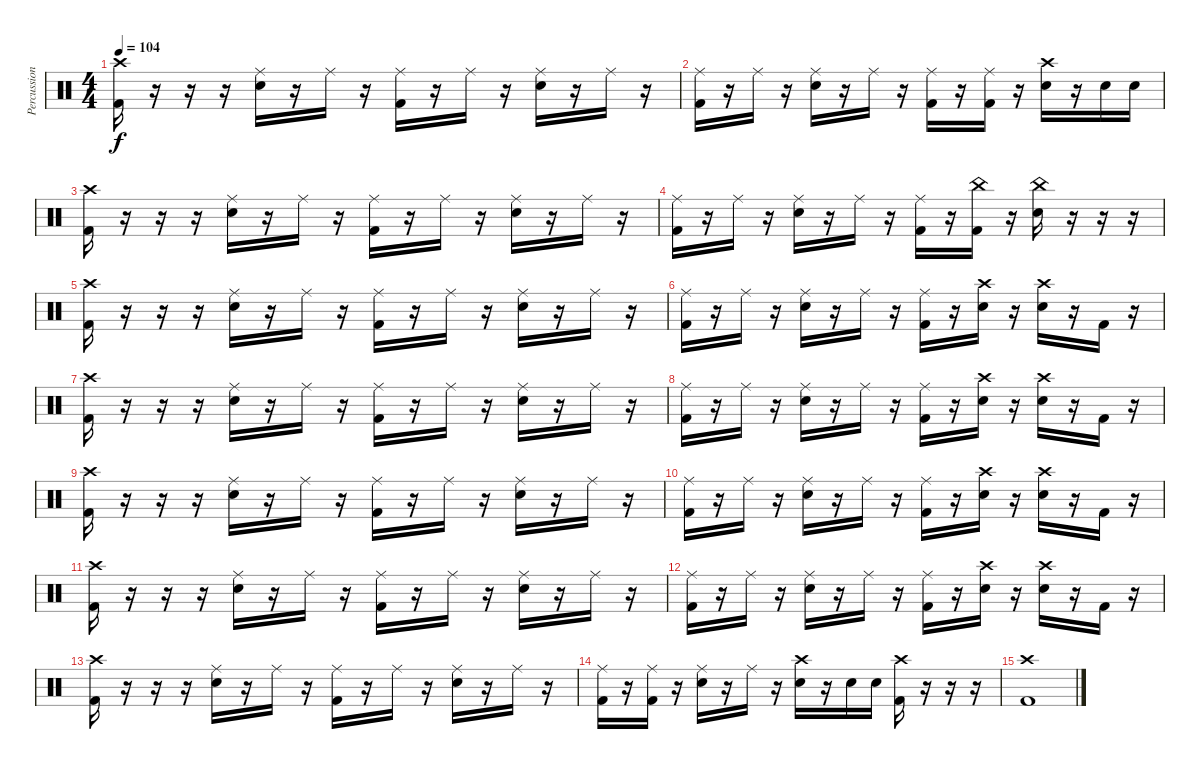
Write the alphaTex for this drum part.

\track ("Percussion" "Percussion") {instrument percussion}
\staff {score}
\articulation defaults
\ts (4 4)
\tempo 104
\clef neutral
\ks c
("Crash high (hit)" "Kick (hit) 2").16{dy f} r.16 r.16 r.16 ("Ride (middle)" "Snare (hit) 2").16 r.16 "Ride (middle)".16 r.16 ("Ride (middle)" "Kick (hit) 2").16 r.16 "Ride (middle)".16 r.16 ("Ride (middle)" "Snare (hit) 2").16 r.16 "Ride (middle)".16 r.16 |
("Ride (middle)" "Kick (hit) 2").16 r.16 "Ride (middle)".16 r.16 ("Ride (middle)" "Snare (hit) 2").16 r.16 "Ride (middle)".16 r.16 ("Ride (middle)" "Kick (hit) 2").16 r.16 ("Ride (middle)" "Kick (hit) 2").16 r.16 ("Crash high (hit)" "Snare (hit) 2").16 r.16 "Snare (hit) 2".16 "Snare (hit) 2".16 |
("Crash high (hit)" "Kick (hit) 2").16 r.16 r.16 r.16 ("Ride (middle)" "Snare (hit) 2").16 r.16 "Ride (middle)".16 r.16 ("Ride (middle)" "Kick (hit) 2").16 r.16 "Ride (middle)".16 r.16 ("Ride (middle)" "Snare (hit) 2").16 r.16 "Ride (middle)".16 r.16 |
("Ride (middle)" "Kick (hit) 2").16 r.16 "Ride (middle)".16 r.16 ("Ride (middle)" "Snare (hit) 2").16 r.16 "Ride (middle)".16 r.16 ("Ride (middle)" "Kick (hit) 2").16 r.16 ("China (hit)" "Kick (hit) 2").16 r.16 ("China (hit)" "Snare (hit) 2").16 r.16 r.16 r.16 |
("Crash high (hit)" "Kick (hit) 2").16 r.16 r.16 r.16 ("Ride (middle)" "Snare (hit) 2").16 r.16 "Ride (middle)".16 r.16 ("Ride (middle)" "Kick (hit) 2").16 r.16 "Ride (middle)".16 r.16 ("Ride (middle)" "Snare (hit) 2").16 r.16 "Ride (middle)".16 r.16 |
("Ride (middle)" "Kick (hit) 2").16 r.16 "Ride (middle)".16 r.16 ("Ride (middle)" "Snare (hit) 2").16 r.16 "Ride (middle)".16 r.16 ("Ride (middle)" "Kick (hit) 2").16 r.16 ("Crash high (hit)" "Snare (hit) 2").16 r.16 ("Crash high (hit)" "Snare (hit) 2").16 r.16 "Kick (hit) 2".16 r.16 |
("Crash high (hit)" "Kick (hit) 2").16 r.16 r.16 r.16 ("Ride (middle)" "Snare (hit) 2").16 r.16 "Ride (middle)".16 r.16 ("Ride (middle)" "Kick (hit) 2").16 r.16 "Ride (middle)".16 r.16 ("Ride (middle)" "Snare (hit) 2").16 r.16 "Ride (middle)".16 r.16 |
("Ride (middle)" "Kick (hit) 2").16 r.16 "Ride (middle)".16 r.16 ("Ride (middle)" "Snare (hit) 2").16 r.16 "Ride (middle)".16 r.16 ("Ride (middle)" "Kick (hit) 2").16 r.16 ("Crash high (hit)" "Snare (hit) 2").16 r.16 ("Crash high (hit)" "Snare (hit) 2").16 r.16 "Kick (hit) 2".16 r.16 |
("Crash high (hit)" "Kick (hit) 2").16 r.16 r.16 r.16 ("Ride (middle)" "Snare (hit) 2").16 r.16 "Ride (middle)".16 r.16 ("Ride (middle)" "Kick (hit) 2").16 r.16 "Ride (middle)".16 r.16 ("Ride (middle)" "Snare (hit) 2").16 r.16 "Ride (middle)".16 r.16 |
("Ride (middle)" "Kick (hit) 2").16 r.16 "Ride (middle)".16 r.16 ("Ride (middle)" "Snare (hit) 2").16 r.16 "Ride (middle)".16 r.16 ("Ride (middle)" "Kick (hit) 2").16 r.16 ("Crash high (hit)" "Snare (hit) 2").16 r.16 ("Crash high (hit)" "Snare (hit) 2").16 r.16 "Kick (hit) 2".16 r.16 |
("Crash high (hit)" "Kick (hit) 2").16 r.16 r.16 r.16 ("Ride (middle)" "Snare (hit) 2").16 r.16 "Ride (middle)".16 r.16 ("Ride (middle)" "Kick (hit) 2").16 r.16 "Ride (middle)".16 r.16 ("Ride (middle)" "Snare (hit) 2").16 r.16 "Ride (middle)".16 r.16 |
("Ride (middle)" "Kick (hit) 2").16 r.16 "Ride (middle)".16 r.16 ("Ride (middle)" "Snare (hit) 2").16 r.16 "Ride (middle)".16 r.16 ("Ride (middle)" "Kick (hit) 2").16 r.16 ("Crash high (hit)" "Snare (hit) 2").16 r.16 ("Crash high (hit)" "Snare (hit) 2").16 r.16 "Kick (hit) 2".16 r.16 |
("Crash high (hit)" "Kick (hit) 2").16 r.16 r.16 r.16 ("Ride (middle)" "Snare (hit) 2").16 r.16 "Ride (middle)".16 r.16 ("Ride (middle)" "Kick (hit) 2").16 r.16 "Ride (middle)".16 r.16 ("Ride (middle)" "Snare (hit) 2").16 r.16 "Ride (middle)".16 r.16 |
("Ride (middle)" "Kick (hit) 2").16 r.16 ("Ride (middle)" "Kick (hit) 2").16 r.16 ("Ride (middle)" "Snare (hit) 2").16 r.16 "Ride (middle)".16 r.16 ("Crash high (hit)" "Snare (hit) 2").16 r.16 "Snare (hit) 2".16 "Snare (hit) 2".16 ("Crash high (hit)" "Kick (hit) 2").16 r.16 r.16 r.16 |
("Crash high (hit)" "Kick (hit) 2").1
